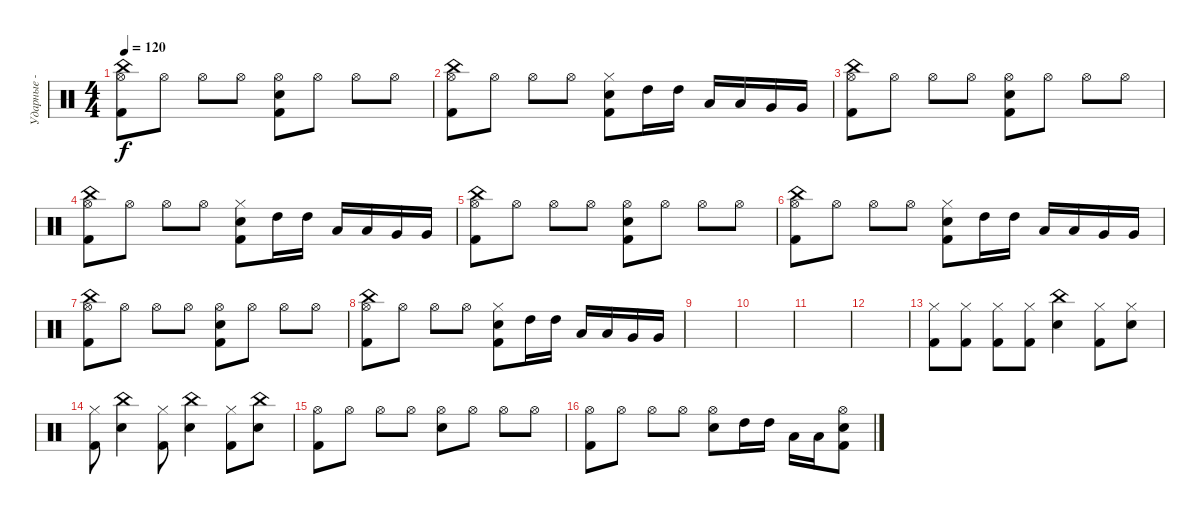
\track ("Ударные - Ваня" "Ударные - ") {instrument percussion}
\staff {score}
\articulation defaults
\ts (4 4)
\tempo 120
\clef neutral
\ks c
("China (hit)" "Hi-Hat (open)" "Kick (hit) 2").8{dy f} "Hi-Hat (open)".8 "Hi-Hat (open)".8 "Hi-Hat (open)".8 ("Hi-Hat (open)" "Snare (hit) 2" "Kick (hit) 2").8 "Hi-Hat (open)".8 "Hi-Hat (open)".8 "Hi-Hat (open)".8 |
("China (hit)" "Hi-Hat (open)" "Kick (hit) 2").8 "Hi-Hat (open)".8 "Hi-Hat (open)".8 "Hi-Hat (open)".8 ("Hi-Hat (closed)" "Snare (hit) 2" "Kick (hit) 2").8 "High Tom (hit)".16 "High Tom (hit)".16 "Low Tom (hit)".16 "Low Tom (hit)".16 "Very Low Tom (hit)".16 "Very Low Tom (hit)".16 |
("China (hit)" "Hi-Hat (open)" "Kick (hit) 2").8 "Hi-Hat (open)".8 "Hi-Hat (open)".8 "Hi-Hat (open)".8 ("Hi-Hat (open)" "Snare (hit) 2" "Kick (hit) 2").8 "Hi-Hat (open)".8 "Hi-Hat (open)".8 "Hi-Hat (open)".8 |
("China (hit)" "Hi-Hat (open)" "Kick (hit) 2").8 "Hi-Hat (open)".8 "Hi-Hat (open)".8 "Hi-Hat (open)".8 ("Hi-Hat (closed)" "Snare (hit) 2" "Kick (hit) 2").8 "High Tom (hit)".16 "High Tom (hit)".16 "Low Tom (hit)".16 "Low Tom (hit)".16 "Very Low Tom (hit)".16 "Very Low Tom (hit)".16 |
("China (hit)" "Hi-Hat (open)" "Kick (hit) 2").8 "Hi-Hat (open)".8 "Hi-Hat (open)".8 "Hi-Hat (open)".8 ("Hi-Hat (open)" "Snare (hit) 2" "Kick (hit) 2").8 "Hi-Hat (open)".8 "Hi-Hat (open)".8 "Hi-Hat (open)".8 |
("China (hit)" "Hi-Hat (open)" "Kick (hit) 2").8 "Hi-Hat (open)".8 "Hi-Hat (open)".8 "Hi-Hat (open)".8 ("Hi-Hat (closed)" "Snare (hit) 2" "Kick (hit) 2").8 "High Tom (hit)".16 "High Tom (hit)".16 "Low Tom (hit)".16 "Low Tom (hit)".16 "Very Low Tom (hit)".16 "Very Low Tom (hit)".16 |
("China (hit)" "Hi-Hat (open)" "Kick (hit) 2").8 "Hi-Hat (open)".8 "Hi-Hat (open)".8 "Hi-Hat (open)".8 ("Hi-Hat (open)" "Snare (hit) 2" "Kick (hit) 2").8 "Hi-Hat (open)".8 "Hi-Hat (open)".8 "Hi-Hat (open)".8 |
("China (hit)" "Hi-Hat (open)" "Kick (hit) 2").8 "Hi-Hat (open)".8 "Hi-Hat (open)".8 "Hi-Hat (open)".8 ("Hi-Hat (closed)" "Snare (hit) 2" "Kick (hit) 2").8 "High Tom (hit)".16 "High Tom (hit)".16 "Low Tom (hit)".16 "Low Tom (hit)".16 "Very Low Tom (hit)".16 "Very Low Tom (hit)".16 |
|
|
|
|
("Hi-Hat (closed)" "Kick (hit) 2").8 ("Hi-Hat (closed)" "Kick (hit) 2").8 ("Hi-Hat (closed)" "Kick (hit) 2").8 ("Hi-Hat (closed)" "Kick (hit) 2").8 ("China (hit)" "Snare (hit) 2").4 ("Hi-Hat (closed)" "Kick (hit) 2").8 ("Hi-Hat (closed)" "Snare (hit) 2").8 |
("Hi-Hat (closed)" "Kick (hit) 2").8 ("China (hit)" "Snare (hit) 2").4 ("Hi-Hat (closed)" "Kick (hit) 2").8 ("China (hit)" "Snare (hit) 2").4 ("Hi-Hat (closed)" "Kick (hit) 2").8 ("China (hit)" "Snare (hit) 2").8 |
("Hi-Hat (open)" "Kick (hit) 2").8 "Hi-Hat (open)".8 "Hi-Hat (open)".8 "Hi-Hat (open)".8 ("Snare (hit) 2" "Hi-Hat (open)").8 "Hi-Hat (open)".8 "Hi-Hat (open)".8 "Hi-Hat (open)".8 |
("Hi-Hat (open)" "Kick (hit) 2").8 "Hi-Hat (open)".8 "Hi-Hat (open)".8 "Hi-Hat (open)".8 ("Snare (hit) 2" "Hi-Hat (open)").8 "High Tom (hit)".16 "High Tom (hit)".16 "Low Tom (hit)".16 "Low Tom (hit)".16 ("Snare (hit) 2" "Hi-Hat (open)" "Kick (hit) 2").8
